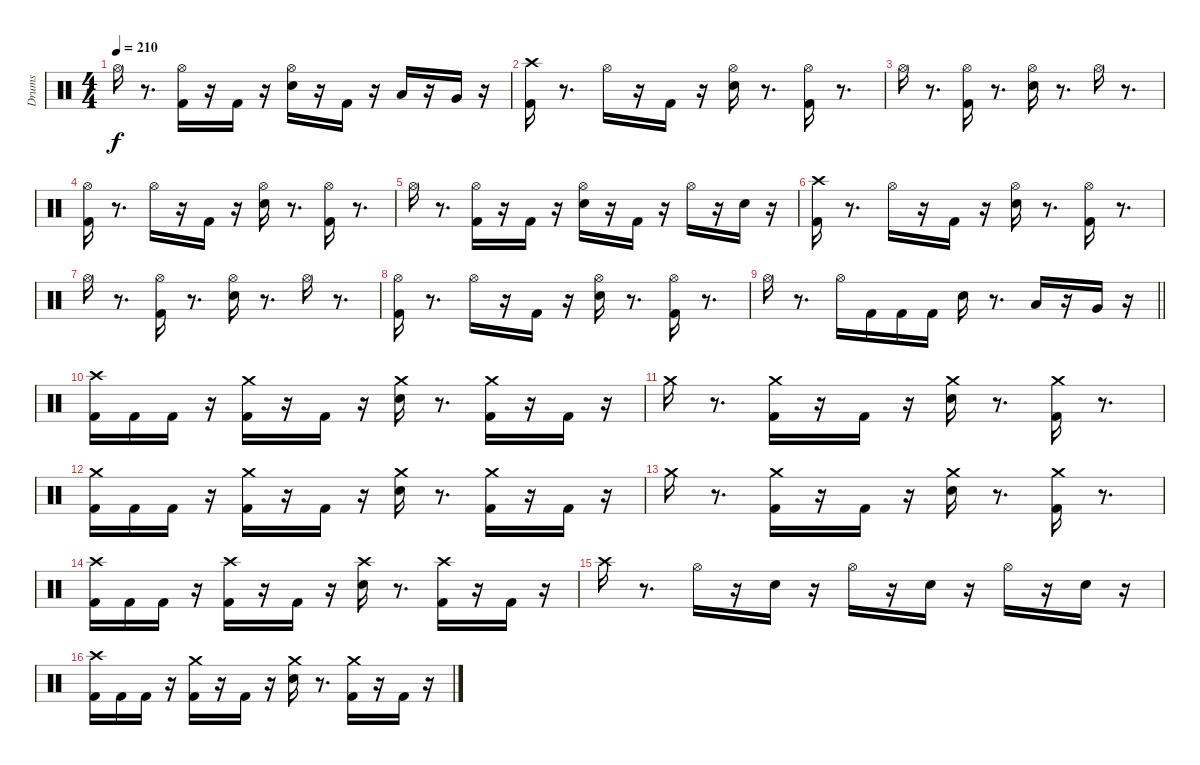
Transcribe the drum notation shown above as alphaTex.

\track ("Drums" "Drums") {instrument percussion}
\staff {score}
\articulation defaults
\ts (4 4)
\tempo 210
\clef neutral
\ks c "Hi-Hat (open)".16{dy f}
r.8{d} ("Kick (hit) 2" "Hi-Hat (open)").16 r.16 "Kick (hit) 2".16 r.16 ("Snare (hit) 2" "Hi-Hat (open)").16 r.16 "Kick (hit) 2".16 r.16 "Low Tom (hit)".16 r.16 "Very Low Tom (hit)".16 r.16 |
("Kick (hit) 2" "Crash high (hit)").16 r.8{d} "Hi-Hat (open)".16 r.16 "Kick (hit) 2".16 r.16 ("Snare (hit) 2" "Hi-Hat (open)").16 r.8{d} ("Kick (hit) 2" "Hi-Hat (open)").16 r.8{d} |
"Hi-Hat (open)".16 r.8{d} ("Kick (hit) 2" "Hi-Hat (open)").16 r.8{d} ("Snare (hit) 2" "Hi-Hat (open)").16 r.8{d} "Hi-Hat (open)".16 r.8{d} |
("Kick (hit) 2" "Hi-Hat (open)").16 r.8{d} "Hi-Hat (open)".16 r.16 "Kick (hit) 2".16 r.16 ("Snare (hit) 2" "Hi-Hat (open)").16 r.8{d} ("Kick (hit) 2" "Hi-Hat (open)").16 r.8{d} |
"Hi-Hat (open)".16 r.8{d} ("Kick (hit) 2" "Hi-Hat (open)").16 r.16 "Kick (hit) 2".16 r.16 ("Snare (hit) 2" "Hi-Hat (open)").16 r.16 "Kick (hit) 2".16 r.16 "Hi-Hat (open)".16 r.16 "Snare (hit) 2".16 r.16 |
("Kick (hit) 2" "Crash high (hit)").16 r.8{d} "Hi-Hat (open)".16 r.16 "Kick (hit) 2".16 r.16 ("Snare (hit) 2" "Hi-Hat (open)").16 r.8{d} ("Kick (hit) 2" "Hi-Hat (open)").16 r.8{d} |
"Hi-Hat (open)".16 r.8{d} ("Kick (hit) 2" "Hi-Hat (open)").16 r.8{d} ("Snare (hit) 2" "Hi-Hat (open)").16 r.8{d} "Hi-Hat (open)".16 r.8{d} |
("Kick (hit) 2" "Hi-Hat (open)").16 r.8{d} "Hi-Hat (open)".16 r.16 "Kick (hit) 2".16 r.16 ("Snare (hit) 2" "Hi-Hat (open)").16 r.8{d} ("Kick (hit) 2" "Hi-Hat (open)").16 r.8{d} |
\barLineRight lightlight "Hi-Hat (open)".16
r.8{d} "Hi-Hat (open)".16 "Kick (hit) 2".16 "Kick (hit) 2".16 "Kick (hit) 2".16 "Snare (hit) 2".16 r.8{d} "Low Tom (hit)".16 r.16 "Very Low Tom (hit)".16 r.16 |
\section ("" " ")
("Kick (hit) 2" "Crash high (hit)").16 "Kick (hit) 2".16 "Kick (hit) 2".16 r.16 ("Kick (hit) 2" "Crash medium (hit)").16 r.16 "Kick (hit) 2".16 r.16 ("Snare (hit) 2" "Crash medium (hit)").16 r.8{d} ("Kick (hit) 2" "Crash medium (hit)").16 r.16 "Kick (hit) 2".16 r.16 |
"Crash medium (hit)".16 r.8{d} ("Kick (hit) 2" "Crash medium (hit)").16 r.16 "Kick (hit) 2".16 r.16 ("Snare (hit) 2" "Crash medium (hit)").16 r.8{d} ("Kick (hit) 2" "Crash medium (hit)").16 r.8{d} |
("Kick (hit) 2" "Crash medium (hit)").16 "Kick (hit) 2".16 "Kick (hit) 2".16 r.16 ("Kick (hit) 2" "Crash medium (hit)").16 r.16 "Kick (hit) 2".16 r.16 ("Snare (hit) 2" "Crash medium (hit)").16 r.8{d} ("Kick (hit) 2" "Crash medium (hit)").16 r.16 "Kick (hit) 2".16 r.16 |
"Crash medium (hit)".16 r.8{d} ("Kick (hit) 2" "Crash medium (hit)").16 r.16 "Kick (hit) 2".16 r.16 ("Snare (hit) 2" "Crash medium (hit)").16 r.8{d} ("Kick (hit) 2" "Crash medium (hit)").16 r.8{d} |
("Kick (hit) 2" "Crash high (hit)").16 "Kick (hit) 2".16 "Kick (hit) 2".16 r.16 ("Kick (hit) 2" "Crash high (hit)").16 r.16 "Kick (hit) 2".16 r.16 ("Snare (hit) 2" "Crash high (hit)").16 r.8{d} ("Kick (hit) 2" "Crash high (hit)").16 r.16 "Kick (hit) 2".16 r.16 |
"Crash high (hit)".16 r.8{d} "Hi-Hat (open)".16 r.16 "Snare (hit) 2".16 r.16 "Hi-Hat (open)".16 r.16 "Snare (hit) 2".16 r.16 "Hi-Hat (open)".16 r.16 "Snare (hit) 2".16 r.16 |
("Kick (hit) 2" "Crash high (hit)").16 "Kick (hit) 2".16 "Kick (hit) 2".16 r.16 ("Kick (hit) 2" "Crash medium (hit)").16 r.16 "Kick (hit) 2".16 r.16 ("Snare (hit) 2" "Crash medium (hit)").16 r.8{d} ("Kick (hit) 2" "Crash medium (hit)").16 r.16 "Kick (hit) 2".16 r.16
